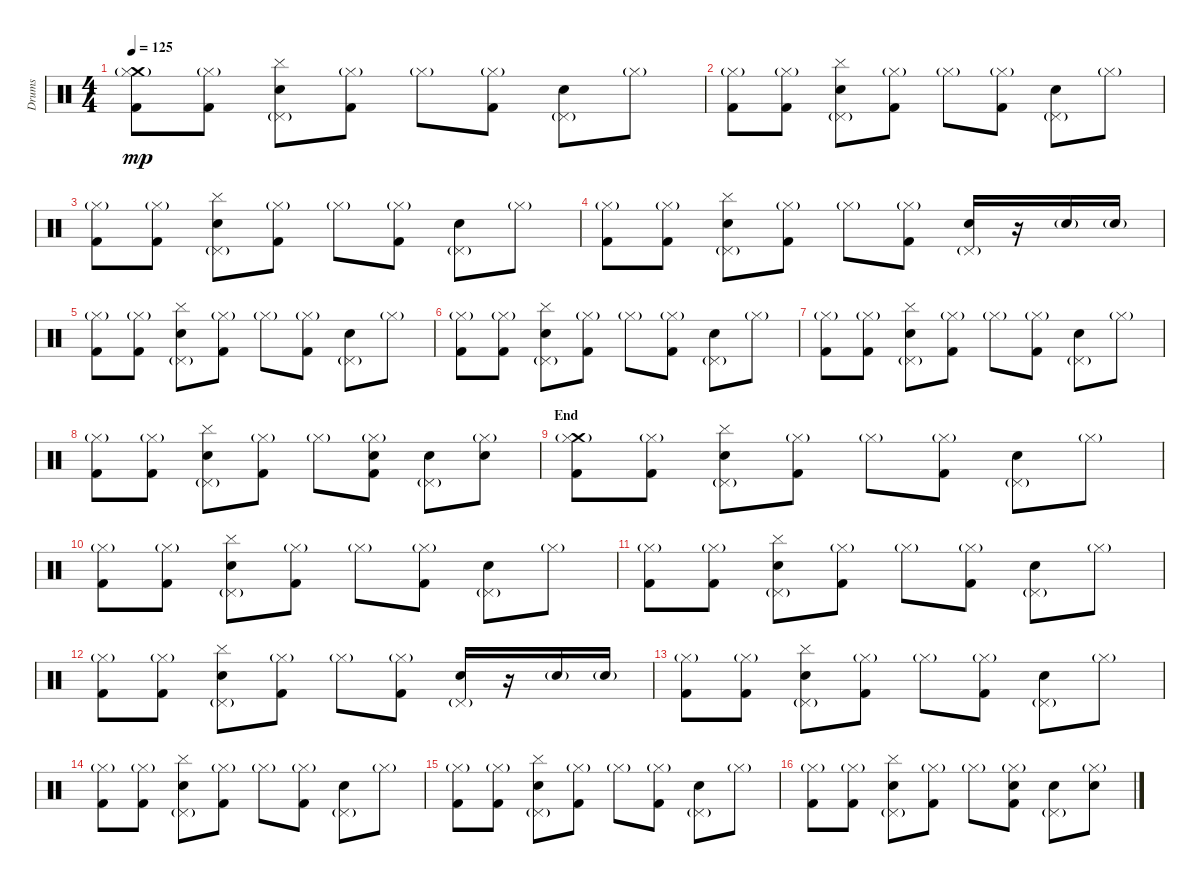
\track ("Drums" "Drums") {instrument percussion}
\staff {score}
\articulation defaults
\ts (4 4)
\tempo 125
\clef neutral
\ks c
("Crash medium (hit)" "Hi-Hat (closed)"{g} "Kick (hit) 2").8{dy mp} ("Hi-Hat (closed)"{g} "Kick (hit) 2").8 ("Electric Snare (hit)" "Pedal Hi-Hat (hit)"{g} "Cymbal (hit)").8 ("Hi-Hat (closed)"{g} "Kick (hit) 2").8 "Hi-Hat (closed)"{g}.8 ("Hi-Hat (closed)"{g} "Kick (hit) 2").8 ("Electric Snare (hit)" "Pedal Hi-Hat (hit)"{g}).8 "Hi-Hat (closed)"{g}.8 |
("Hi-Hat (closed)"{g} "Kick (hit) 2").8 ("Hi-Hat (closed)"{g} "Kick (hit) 2").8 ("Electric Snare (hit)" "Pedal Hi-Hat (hit)"{g} "Cymbal (hit)").8 ("Hi-Hat (closed)"{g} "Kick (hit) 2").8 "Hi-Hat (closed)"{g}.8 ("Hi-Hat (closed)"{g} "Kick (hit) 2").8 ("Electric Snare (hit)" "Pedal Hi-Hat (hit)"{g}).8 "Hi-Hat (closed)"{g}.8 |
("Hi-Hat (closed)"{g} "Kick (hit) 2").8 ("Hi-Hat (closed)"{g} "Kick (hit) 2").8 ("Electric Snare (hit)" "Pedal Hi-Hat (hit)"{g} "Cymbal (hit)").8 ("Hi-Hat (closed)"{g} "Kick (hit) 2").8 "Hi-Hat (closed)"{g}.8 ("Hi-Hat (closed)"{g} "Kick (hit) 2").8 ("Electric Snare (hit)" "Pedal Hi-Hat (hit)"{g}).8 "Hi-Hat (closed)"{g}.8 |
("Hi-Hat (closed)"{g} "Kick (hit) 2").8 ("Hi-Hat (closed)"{g} "Kick (hit) 2").8 ("Electric Snare (hit)" "Pedal Hi-Hat (hit)"{g} "Cymbal (hit)").8 ("Hi-Hat (closed)"{g} "Kick (hit) 2").8 "Hi-Hat (closed)"{g}.8 ("Hi-Hat (closed)"{g} "Kick (hit) 2").8 ("Electric Snare (hit)" "Pedal Hi-Hat (hit)"{g}).16 r.16 "Electric Snare (hit)"{g}.16 "Electric Snare (hit)"{g}.16 |
("Hi-Hat (closed)"{g} "Kick (hit) 2").8 ("Hi-Hat (closed)"{g} "Kick (hit) 2").8 ("Electric Snare (hit)" "Pedal Hi-Hat (hit)"{g} "Cymbal (hit)").8 ("Hi-Hat (closed)"{g} "Kick (hit) 2").8 "Hi-Hat (closed)"{g}.8 ("Hi-Hat (closed)"{g} "Kick (hit) 2").8 ("Electric Snare (hit)" "Pedal Hi-Hat (hit)"{g}).8 "Hi-Hat (closed)"{g}.8 |
("Hi-Hat (closed)"{g} "Kick (hit) 2").8 ("Hi-Hat (closed)"{g} "Kick (hit) 2").8 ("Electric Snare (hit)" "Pedal Hi-Hat (hit)"{g} "Cymbal (hit)").8 ("Hi-Hat (closed)"{g} "Kick (hit) 2").8 "Hi-Hat (closed)"{g}.8 ("Hi-Hat (closed)"{g} "Kick (hit) 2").8 ("Electric Snare (hit)" "Pedal Hi-Hat (hit)"{g}).8 "Hi-Hat (closed)"{g}.8 |
("Hi-Hat (closed)"{g} "Kick (hit) 2").8 ("Hi-Hat (closed)"{g} "Kick (hit) 2").8 ("Electric Snare (hit)" "Pedal Hi-Hat (hit)"{g} "Cymbal (hit)").8 ("Hi-Hat (closed)"{g} "Kick (hit) 2").8 "Hi-Hat (closed)"{g}.8 ("Hi-Hat (closed)"{g} "Kick (hit) 2").8 ("Electric Snare (hit)" "Pedal Hi-Hat (hit)"{g}).8 "Hi-Hat (closed)"{g}.8 |
("Hi-Hat (closed)"{g} "Kick (hit) 2").8 ("Hi-Hat (closed)"{g} "Kick (hit) 2").8 ("Electric Snare (hit)" "Pedal Hi-Hat (hit)"{g} "Cymbal (hit)").8 ("Hi-Hat (closed)"{g} "Kick (hit) 2").8 "Hi-Hat (closed)"{g}.8 ("Electric Snare (hit)" "Hi-Hat (closed)"{g} "Kick (hit) 2").8 ("Electric Snare (hit)" "Pedal Hi-Hat (hit)"{g}).8 ("Electric Snare (hit)" "Hi-Hat (closed)"{g}).8 |
\section ("" "End")
("Crash medium (hit)" "Hi-Hat (closed)"{g} "Kick (hit) 2").8 ("Hi-Hat (closed)"{g} "Kick (hit) 2").8 ("Electric Snare (hit)" "Pedal Hi-Hat (hit)"{g} "Cymbal (hit)").8 ("Hi-Hat (closed)"{g} "Kick (hit) 2").8 "Hi-Hat (closed)"{g}.8 ("Hi-Hat (closed)"{g} "Kick (hit) 2").8 ("Electric Snare (hit)" "Pedal Hi-Hat (hit)"{g}).8 "Hi-Hat (closed)"{g}.8 |
("Hi-Hat (closed)"{g} "Kick (hit) 2").8 ("Hi-Hat (closed)"{g} "Kick (hit) 2").8 ("Electric Snare (hit)" "Pedal Hi-Hat (hit)"{g} "Cymbal (hit)").8 ("Hi-Hat (closed)"{g} "Kick (hit) 2").8 "Hi-Hat (closed)"{g}.8 ("Hi-Hat (closed)"{g} "Kick (hit) 2").8 ("Electric Snare (hit)" "Pedal Hi-Hat (hit)"{g}).8 "Hi-Hat (closed)"{g}.8 |
("Hi-Hat (closed)"{g} "Kick (hit) 2").8 ("Hi-Hat (closed)"{g} "Kick (hit) 2").8 ("Electric Snare (hit)" "Pedal Hi-Hat (hit)"{g} "Cymbal (hit)").8 ("Hi-Hat (closed)"{g} "Kick (hit) 2").8 "Hi-Hat (closed)"{g}.8 ("Hi-Hat (closed)"{g} "Kick (hit) 2").8 ("Electric Snare (hit)" "Pedal Hi-Hat (hit)"{g}).8 "Hi-Hat (closed)"{g}.8 |
("Hi-Hat (closed)"{g} "Kick (hit) 2").8 ("Hi-Hat (closed)"{g} "Kick (hit) 2").8 ("Electric Snare (hit)" "Pedal Hi-Hat (hit)"{g} "Cymbal (hit)").8 ("Hi-Hat (closed)"{g} "Kick (hit) 2").8 "Hi-Hat (closed)"{g}.8 ("Hi-Hat (closed)"{g} "Kick (hit) 2").8 ("Electric Snare (hit)" "Pedal Hi-Hat (hit)"{g}).16 r.16 "Electric Snare (hit)"{g}.16 "Electric Snare (hit)"{g}.16 |
("Hi-Hat (closed)"{g} "Kick (hit) 2").8 ("Hi-Hat (closed)"{g} "Kick (hit) 2").8 ("Electric Snare (hit)" "Pedal Hi-Hat (hit)"{g} "Cymbal (hit)").8 ("Hi-Hat (closed)"{g} "Kick (hit) 2").8 "Hi-Hat (closed)"{g}.8 ("Hi-Hat (closed)"{g} "Kick (hit) 2").8 ("Electric Snare (hit)" "Pedal Hi-Hat (hit)"{g}).8 "Hi-Hat (closed)"{g}.8 |
("Hi-Hat (closed)"{g} "Kick (hit) 2").8 ("Hi-Hat (closed)"{g} "Kick (hit) 2").8 ("Electric Snare (hit)" "Pedal Hi-Hat (hit)"{g} "Cymbal (hit)").8 ("Hi-Hat (closed)"{g} "Kick (hit) 2").8 "Hi-Hat (closed)"{g}.8 ("Hi-Hat (closed)"{g} "Kick (hit) 2").8 ("Electric Snare (hit)" "Pedal Hi-Hat (hit)"{g}).8 "Hi-Hat (closed)"{g}.8 |
("Hi-Hat (closed)"{g} "Kick (hit) 2").8 ("Hi-Hat (closed)"{g} "Kick (hit) 2").8 ("Electric Snare (hit)" "Pedal Hi-Hat (hit)"{g} "Cymbal (hit)").8 ("Hi-Hat (closed)"{g} "Kick (hit) 2").8 "Hi-Hat (closed)"{g}.8 ("Hi-Hat (closed)"{g} "Kick (hit) 2").8 ("Electric Snare (hit)" "Pedal Hi-Hat (hit)"{g}).8 "Hi-Hat (closed)"{g}.8 |
("Hi-Hat (closed)"{g} "Kick (hit) 2").8 ("Hi-Hat (closed)"{g} "Kick (hit) 2").8 ("Electric Snare (hit)" "Pedal Hi-Hat (hit)"{g} "Cymbal (hit)").8 ("Hi-Hat (closed)"{g} "Kick (hit) 2").8 "Hi-Hat (closed)"{g}.8 ("Electric Snare (hit)" "Hi-Hat (closed)"{g} "Kick (hit) 2").8 ("Electric Snare (hit)" "Pedal Hi-Hat (hit)"{g}).8 ("Electric Snare (hit)" "Hi-Hat (closed)"{g}).8
